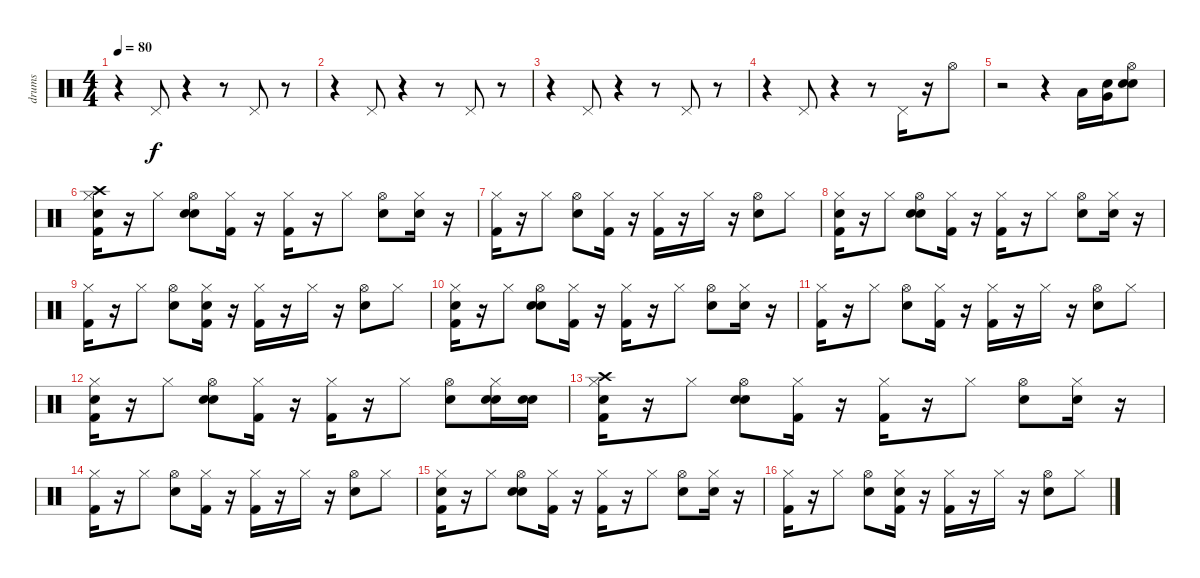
\track ("drums" "drums") {instrument percussion}
\staff {score}
\articulation defaults
\ts (4 4)
\tempo 80
\clef neutral
\ks c
r.4{dy f} "Pedal Hi-Hat (hit)".8 r.4 r.8 "Pedal Hi-Hat (hit)".8 r.8 |
r.4 "Pedal Hi-Hat (hit)".8 r.4 r.8 "Pedal Hi-Hat (hit)".8 r.8 |
r.4 "Pedal Hi-Hat (hit)".8 r.4 r.8 "Pedal Hi-Hat (hit)".8 r.8 |
r.4 "Pedal Hi-Hat (hit)".8 r.4 r.8 "Pedal Hi-Hat (hit)".16 r.16 "Hi-Hat (open)".8 |
r.2 r.4 "Low Tom (hit)".16 ("Snare (hit)" "Very Low Tom (hit)").16 ("Snare (hit)" "Snare (hit) 2" "Hi-Hat (open)").8 |
("Snare (hit)" "Hi-Hat (closed)" "Kick (hit) 2" "Crash high (hit)").16 r.16 "Hi-Hat (closed)".8 ("Snare (hit)" "Hi-Hat (open)" "Snare (hit) 2").8 ("Kick (hit) 2" "Hi-Hat (closed)").16 r.16 ("Hi-Hat (closed)" "Kick (hit) 2").16 r.16 "Hi-Hat (closed)".8 ("Hi-Hat (open)" "Snare (hit) 2").8 ("Snare (hit)" "Hi-Hat (closed)").16 r.16 |
("Hi-Hat (closed)" "Kick (hit) 2").16 r.16 "Hi-Hat (closed)".8 ("Hi-Hat (open)" "Snare (hit) 2").8 ("Kick (hit) 2" "Hi-Hat (closed)").16 r.16 ("Hi-Hat (closed)" "Kick (hit) 2").16 r.16 "Hi-Hat (closed)".16 r.16 ("Snare (hit) 2" "Hi-Hat (open)").8 "Hi-Hat (closed)".8 |
("Snare (hit)" "Hi-Hat (closed)" "Kick (hit) 2").16 r.16 "Hi-Hat (closed)".8 ("Snare (hit)" "Snare (hit) 2" "Hi-Hat (open)").8 ("Hi-Hat (closed)" "Kick (hit) 2").16 r.16 ("Hi-Hat (closed)" "Kick (hit) 2").16 r.16 "Hi-Hat (closed)".8 ("Hi-Hat (open)" "Snare (hit) 2").8 ("Snare (hit)" "Hi-Hat (closed)").16 r.16 |
("Kick (hit) 2" "Hi-Hat (closed)").16 r.16 "Hi-Hat (closed)".8 ("Hi-Hat (open)" "Snare (hit) 2").8 ("Snare (hit)" "Kick (hit) 2" "Hi-Hat (closed)").16 r.16 ("Kick (hit) 2" "Hi-Hat (closed)").16 r.16 "Hi-Hat (closed)".16 r.16 ("Snare (hit) 2" "Hi-Hat (open)").8 "Hi-Hat (closed)".8 |
("Snare (hit)" "Hi-Hat (closed)" "Kick (hit) 2").16 r.16 "Hi-Hat (closed)".8 ("Snare (hit)" "Hi-Hat (open)" "Snare (hit) 2").8 ("Hi-Hat (closed)" "Kick (hit) 2").16 r.16 ("Kick (hit) 2" "Hi-Hat (closed)").16 r.16 "Hi-Hat (closed)".8 ("Hi-Hat (open)" "Snare (hit) 2").8 ("Snare (hit)" "Hi-Hat (closed)").16 r.16 |
("Kick (hit) 2" "Hi-Hat (closed)").16 r.16 "Hi-Hat (closed)".8 ("Snare (hit) 2" "Hi-Hat (open)").8 ("Kick (hit) 2" "Hi-Hat (closed)").16 r.16 ("Hi-Hat (closed)" "Kick (hit) 2").16 r.16 "Hi-Hat (closed)".16 r.16 ("Hi-Hat (open)" "Snare (hit) 2").8 "Hi-Hat (closed)".8 |
("Snare (hit)" "Hi-Hat (closed)" "Kick (hit) 2").16 r.16 "Hi-Hat (closed)".8 ("Snare (hit)" "Snare (hit) 2" "Hi-Hat (open)").8 ("Hi-Hat (closed)" "Kick (hit) 2").16 r.16 ("Hi-Hat (closed)" "Kick (hit) 2").16 r.16 "Hi-Hat (closed)".8 ("Snare (hit) 2" "Hi-Hat (open)").8 ("Snare (hit)" "Hi-Hat (closed)" "Snare (hit) 2").16 ("Snare (hit)" "Snare (hit) 2").16 |
("Snare (hit)" "Hi-Hat (closed)" "Kick (hit) 2" "Crash high (hit)").16 r.16 "Hi-Hat (closed)".8 ("Snare (hit)" "Hi-Hat (open)" "Snare (hit) 2").8 ("Hi-Hat (closed)" "Kick (hit) 2").16 r.16 ("Kick (hit) 2" "Hi-Hat (closed)").16 r.16 "Hi-Hat (closed)".8 ("Hi-Hat (open)" "Snare (hit) 2").8 ("Snare (hit)" "Hi-Hat (closed)").16 r.16 |
("Kick (hit) 2" "Hi-Hat (closed)").16 r.16 "Hi-Hat (closed)".8 ("Hi-Hat (open)" "Snare (hit) 2").8 ("Kick (hit) 2" "Hi-Hat (closed)").16 r.16 ("Kick (hit) 2" "Hi-Hat (closed)").16 r.16 "Hi-Hat (closed)".16 r.16 ("Snare (hit) 2" "Hi-Hat (open)").8 "Hi-Hat (closed)".8 |
("Snare (hit)" "Hi-Hat (closed)" "Kick (hit) 2").16 r.16 "Hi-Hat (closed)".8 ("Snare (hit)" "Hi-Hat (open)" "Snare (hit) 2").8 ("Hi-Hat (closed)" "Kick (hit) 2").16 r.16 ("Kick (hit) 2" "Hi-Hat (closed)").16 r.16 "Hi-Hat (closed)".8 ("Snare (hit) 2" "Hi-Hat (open)").8 ("Snare (hit)" "Hi-Hat (closed)").16 r.16 |
("Kick (hit) 2" "Hi-Hat (closed)").16 r.16 "Hi-Hat (closed)".8 ("Hi-Hat (open)" "Snare (hit) 2").8 ("Snare (hit)" "Kick (hit) 2" "Hi-Hat (closed)").16 r.16 ("Hi-Hat (closed)" "Kick (hit) 2").16 r.16 "Hi-Hat (closed)".16 r.16 ("Snare (hit) 2" "Hi-Hat (open)").8 "Hi-Hat (closed)".8
